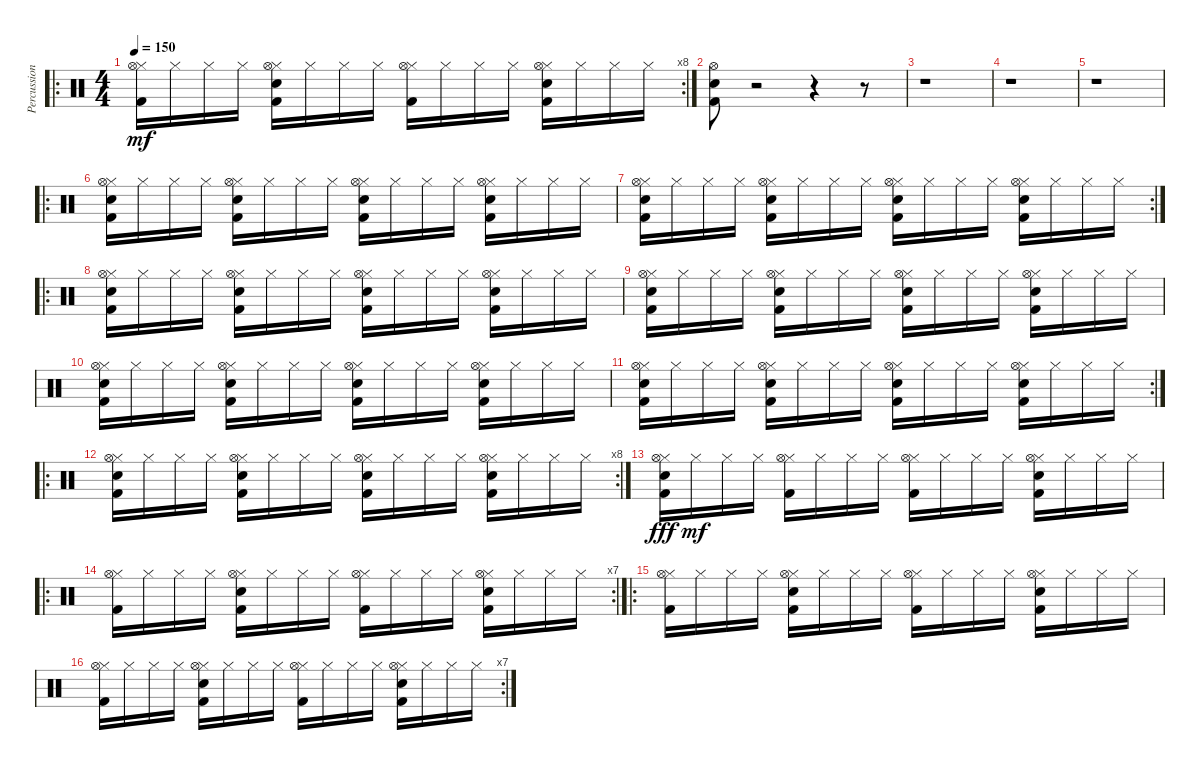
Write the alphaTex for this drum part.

\track ("Percussion" "Percussion") {instrument percussion}
\staff {score}
\articulation defaults
\ro
\rc 8
\ts (4 4)
\tempo 150
\clef neutral
\ks c
("Hi-Hat (closed)" "Hi-Hat (open)" "Kick (hit) 2").16{dy mf} "Hi-Hat (closed)".16 "Hi-Hat (closed)".16 "Hi-Hat (closed)".16 ("Hi-Hat (closed)" "Hi-Hat (open)" "Electric Snare (hit)" "Kick (hit) 2").16 "Hi-Hat (closed)".16 "Hi-Hat (closed)".16 "Hi-Hat (closed)".16 ("Hi-Hat (closed)" "Hi-Hat (open)" "Kick (hit) 2").16 "Hi-Hat (closed)".16 "Hi-Hat (closed)".16 "Hi-Hat (closed)".16 ("Hi-Hat (closed)" "Hi-Hat (open)" "Electric Snare (hit)" "Kick (hit) 2").16 "Hi-Hat (closed)".16 "Hi-Hat (closed)".16 "Hi-Hat (closed)".16 |
("Hi-Hat (open)" "Electric Snare (hit)" "Kick (hit) 2").8 r.2 r.4 r.8 |
r.1 |
r.1 |
r.1 |
\ro
("Hi-Hat (closed)" "Hi-Hat (open)" "Electric Snare (hit)" "Kick (hit) 2").16 "Hi-Hat (closed)".16 "Hi-Hat (closed)".16 "Hi-Hat (closed)".16 ("Hi-Hat (closed)" "Hi-Hat (open)" "Electric Snare (hit)" "Kick (hit) 2").16 "Hi-Hat (closed)".16 "Hi-Hat (closed)".16 "Hi-Hat (closed)".16 ("Hi-Hat (closed)" "Hi-Hat (open)" "Electric Snare (hit)" "Kick (hit) 2").16 "Hi-Hat (closed)".16 "Hi-Hat (closed)".16 "Hi-Hat (closed)".16 ("Hi-Hat (closed)" "Hi-Hat (open)" "Electric Snare (hit)" "Kick (hit) 2").16 "Hi-Hat (closed)".16 "Hi-Hat (closed)".16 "Hi-Hat (closed)".16 |
\rc 2
("Hi-Hat (closed)" "Hi-Hat (open)" "Electric Snare (hit)" "Kick (hit) 2").16 "Hi-Hat (closed)".16 "Hi-Hat (closed)".16 "Hi-Hat (closed)".16 ("Hi-Hat (closed)" "Hi-Hat (open)" "Electric Snare (hit)" "Kick (hit) 2").16 "Hi-Hat (closed)".16 "Hi-Hat (closed)".16 "Hi-Hat (closed)".16 ("Hi-Hat (closed)" "Hi-Hat (open)" "Electric Snare (hit)" "Kick (hit) 2").16 "Hi-Hat (closed)".16 "Hi-Hat (closed)".16 "Hi-Hat (closed)".16 ("Hi-Hat (closed)" "Hi-Hat (open)" "Electric Snare (hit)" "Kick (hit) 2").16 "Hi-Hat (closed)".16 "Hi-Hat (closed)".16 "Hi-Hat (closed)".16 |
\ro
("Hi-Hat (closed)" "Hi-Hat (open)" "Electric Snare (hit)" "Kick (hit) 2").16 "Hi-Hat (closed)".16 "Hi-Hat (closed)".16 "Hi-Hat (closed)".16 ("Hi-Hat (closed)" "Hi-Hat (open)" "Electric Snare (hit)" "Kick (hit) 2").16 "Hi-Hat (closed)".16 "Hi-Hat (closed)".16 "Hi-Hat (closed)".16 ("Hi-Hat (closed)" "Hi-Hat (open)" "Electric Snare (hit)" "Kick (hit) 2").16 "Hi-Hat (closed)".16 "Hi-Hat (closed)".16 "Hi-Hat (closed)".16 ("Hi-Hat (closed)" "Hi-Hat (open)" "Electric Snare (hit)" "Kick (hit) 2").16 "Hi-Hat (closed)".16 "Hi-Hat (closed)".16 "Hi-Hat (closed)".16 |
("Hi-Hat (closed)" "Hi-Hat (open)" "Electric Snare (hit)" "Kick (hit) 2").16 "Hi-Hat (closed)".16 "Hi-Hat (closed)".16 "Hi-Hat (closed)".16 ("Hi-Hat (closed)" "Hi-Hat (open)" "Electric Snare (hit)" "Kick (hit) 2").16 "Hi-Hat (closed)".16 "Hi-Hat (closed)".16 "Hi-Hat (closed)".16 ("Hi-Hat (closed)" "Hi-Hat (open)" "Electric Snare (hit)" "Kick (hit) 2").16 "Hi-Hat (closed)".16 "Hi-Hat (closed)".16 "Hi-Hat (closed)".16 ("Hi-Hat (closed)" "Hi-Hat (open)" "Electric Snare (hit)" "Kick (hit) 2").16 "Hi-Hat (closed)".16 "Hi-Hat (closed)".16 "Hi-Hat (closed)".16 |
("Hi-Hat (closed)" "Hi-Hat (open)" "Electric Snare (hit)" "Kick (hit) 2").16 "Hi-Hat (closed)".16 "Hi-Hat (closed)".16 "Hi-Hat (closed)".16 ("Hi-Hat (closed)" "Hi-Hat (open)" "Electric Snare (hit)" "Kick (hit) 2").16 "Hi-Hat (closed)".16 "Hi-Hat (closed)".16 "Hi-Hat (closed)".16 ("Hi-Hat (closed)" "Hi-Hat (open)" "Electric Snare (hit)" "Kick (hit) 2").16 "Hi-Hat (closed)".16 "Hi-Hat (closed)".16 "Hi-Hat (closed)".16 ("Hi-Hat (closed)" "Hi-Hat (open)" "Electric Snare (hit)" "Kick (hit) 2").16 "Hi-Hat (closed)".16 "Hi-Hat (closed)".16 "Hi-Hat (closed)".16 |
\rc 2
("Hi-Hat (closed)" "Hi-Hat (open)" "Electric Snare (hit)" "Kick (hit) 2").16 "Hi-Hat (closed)".16 "Hi-Hat (closed)".16 "Hi-Hat (closed)".16 ("Hi-Hat (closed)" "Hi-Hat (open)" "Electric Snare (hit)" "Kick (hit) 2").16 "Hi-Hat (closed)".16 "Hi-Hat (closed)".16 "Hi-Hat (closed)".16 ("Hi-Hat (closed)" "Hi-Hat (open)" "Electric Snare (hit)" "Kick (hit) 2").16 "Hi-Hat (closed)".16 "Hi-Hat (closed)".16 "Hi-Hat (closed)".16 ("Hi-Hat (closed)" "Hi-Hat (open)" "Electric Snare (hit)" "Kick (hit) 2").16 "Hi-Hat (closed)".16 "Hi-Hat (closed)".16 "Hi-Hat (closed)".16 |
\ro
\rc 8
("Hi-Hat (closed)" "Hi-Hat (open)" "Electric Snare (hit)" "Kick (hit) 2").16 "Hi-Hat (closed)".16 "Hi-Hat (closed)".16 "Hi-Hat (closed)".16 ("Hi-Hat (closed)" "Hi-Hat (open)" "Electric Snare (hit)" "Kick (hit) 2").16 "Hi-Hat (closed)".16 "Hi-Hat (closed)".16 "Hi-Hat (closed)".16 ("Hi-Hat (closed)" "Hi-Hat (open)" "Electric Snare (hit)" "Kick (hit) 2").16 "Hi-Hat (closed)".16 "Hi-Hat (closed)".16 "Hi-Hat (closed)".16 ("Hi-Hat (closed)" "Hi-Hat (open)" "Electric Snare (hit)" "Kick (hit) 2").16 "Hi-Hat (closed)".16 "Hi-Hat (closed)".16 "Hi-Hat (closed)".16 |
("Hi-Hat (closed)" "Hi-Hat (open)" "Electric Snare (hit)" "Kick (hit) 2").16{dy fff} "Hi-Hat (closed)".16{dy mf} "Hi-Hat (closed)".16 "Hi-Hat (closed)".16 ("Hi-Hat (closed)" "Hi-Hat (open)" "Kick (hit) 2").16 "Hi-Hat (closed)".16 "Hi-Hat (closed)".16 "Hi-Hat (closed)".16 ("Hi-Hat (closed)" "Hi-Hat (open)" "Kick (hit) 2").16 "Hi-Hat (closed)".16 "Hi-Hat (closed)".16 "Hi-Hat (closed)".16 ("Hi-Hat (closed)" "Hi-Hat (open)" "Electric Snare (hit)" "Kick (hit) 2").16 "Hi-Hat (closed)".16 "Hi-Hat (closed)".16 "Hi-Hat (closed)".16 |
\ro
\rc 7
("Hi-Hat (closed)" "Hi-Hat (open)" "Kick (hit) 2").16 "Hi-Hat (closed)".16 "Hi-Hat (closed)".16 "Hi-Hat (closed)".16 ("Hi-Hat (closed)" "Hi-Hat (open)" "Electric Snare (hit)" "Kick (hit) 2").16 "Hi-Hat (closed)".16 "Hi-Hat (closed)".16 "Hi-Hat (closed)".16 ("Hi-Hat (closed)" "Hi-Hat (open)" "Kick (hit) 2").16 "Hi-Hat (closed)".16 "Hi-Hat (closed)".16 "Hi-Hat (closed)".16 ("Hi-Hat (closed)" "Hi-Hat (open)" "Electric Snare (hit)" "Kick (hit) 2").16 "Hi-Hat (closed)".16 "Hi-Hat (closed)".16 "Hi-Hat (closed)".16 |
\ro
("Hi-Hat (closed)" "Hi-Hat (open)" "Kick (hit) 2").16 "Hi-Hat (closed)".16 "Hi-Hat (closed)".16 "Hi-Hat (closed)".16 ("Hi-Hat (closed)" "Hi-Hat (open)" "Electric Snare (hit)" "Kick (hit) 2").16 "Hi-Hat (closed)".16 "Hi-Hat (closed)".16 "Hi-Hat (closed)".16 ("Hi-Hat (closed)" "Hi-Hat (open)" "Kick (hit) 2").16 "Hi-Hat (closed)".16 "Hi-Hat (closed)".16 "Hi-Hat (closed)".16 ("Hi-Hat (closed)" "Hi-Hat (open)" "Electric Snare (hit)" "Kick (hit) 2").16 "Hi-Hat (closed)".16 "Hi-Hat (closed)".16 "Hi-Hat (closed)".16 |
\rc 7
("Hi-Hat (closed)" "Hi-Hat (open)" "Kick (hit) 2").16 "Hi-Hat (closed)".16 "Hi-Hat (closed)".16 "Hi-Hat (closed)".16 ("Hi-Hat (closed)" "Hi-Hat (open)" "Electric Snare (hit)" "Kick (hit) 2").16 "Hi-Hat (closed)".16 "Hi-Hat (closed)".16 "Hi-Hat (closed)".16 ("Hi-Hat (closed)" "Hi-Hat (open)" "Kick (hit) 2").16 "Hi-Hat (closed)".16 "Hi-Hat (closed)".16 "Hi-Hat (closed)".16 ("Hi-Hat (closed)" "Hi-Hat (open)" "Electric Snare (hit)" "Kick (hit) 2").16 "Hi-Hat (closed)".16 "Hi-Hat (closed)".16 "Hi-Hat (closed)".16
